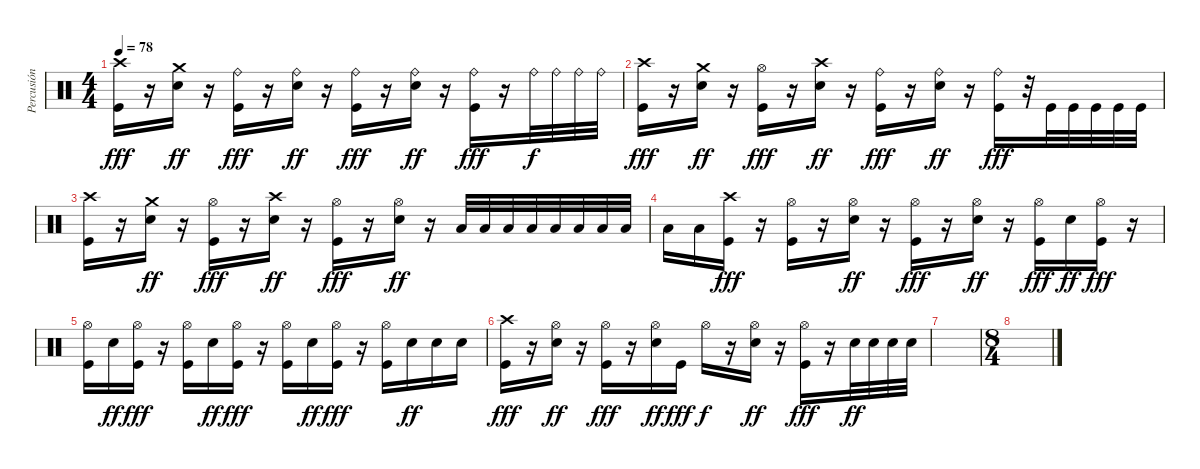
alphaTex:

\track ("Percusión" "Percusión") {instrument percussion}
\staff {score}
\articulation defaults
\ts (4 4)
\tempo 78
\clef neutral
\ks c
("Crash high (hit)" "Kick (hit)").16{dy fff} r.16 ("Crash medium (hit)" "Snare (hit) 2").16{dy ff} r.16 ("Ride (bell)" "Kick (hit)").16{dy fff} r.16 ("Ride (bell)" "Snare (hit) 2").16{dy ff} r.16 ("Ride (bell)" "Kick (hit)").16{dy fff} r.16 ("Ride (bell)" "Snare (hit) 2").16{dy ff} r.16 ("Ride (bell)" "Kick (hit)").16{dy fff} r.16 "Ride (bell)".32{dy f} "Ride (bell)".32 "Ride (bell)".32 "Ride (bell)".32 |
("Crash high (hit)" "Kick (hit)").16{dy fff} r.16 ("Crash medium (hit)" "Snare (hit) 2").16{dy ff} r.16 ("Hi-Hat (open)" "Kick (hit)").16{dy fff} r.16 ("Crash high (hit)" "Snare (hit) 2").16{dy ff} r.16 ("Ride (bell)" "Kick (hit)").16{dy fff} r.16 ("Ride (bell)" "Snare (hit) 2").16{dy ff} r.16 ("Ride (bell)" "Kick (hit)").16{dy fff} r.32 "Kick (hit)".32 "Kick (hit)".32 "Kick (hit)".32 "Kick (hit)".32 "Kick (hit)".32 |
("Crash high (hit)" "Kick (hit)").16 r.16 ("Crash medium (hit)" "Snare (hit) 2").16{dy ff} r.16 ("Hi-Hat (open)" "Kick (hit)").16{dy fff} r.16 ("Crash high (hit)" "Snare (hit) 2").16{dy ff} r.16 ("Hi-Hat (open)" "Kick (hit)").16{dy fff} r.16 ("Hi-Hat (open)" "Snare (hit) 2").16{dy ff} r.16 "Low Tom (hit)".32 "Low Tom (hit)".32 "Low Tom (hit)".32 "Low Tom (hit)".32 "Low Tom (hit)".32 "Low Tom (hit)".32 "Low Tom (hit)".32 "Low Tom (hit)".32 |
"Low Tom (hit)".16 "Low Tom (hit)".16 ("Crash high (hit)" "Kick (hit)").16{dy fff} r.16 ("Hi-Hat (open)" "Kick (hit)").16 r.16 ("Hi-Hat (open)" "Snare (hit) 2").16{dy ff} r.16 ("Hi-Hat (open)" "Kick (hit)").16{dy fff} r.16 ("Hi-Hat (open)" "Snare (hit) 2").16{dy ff} r.16 ("Hi-Hat (open)" "Kick (hit)").16{dy fff} "Snare (hit) 2".16{dy ff} ("Hi-Hat (open)" "Kick (hit)").16{dy fff} r.16 |
("Hi-Hat (open)" "Kick (hit)").16 "Snare (hit) 2".16{dy ff} ("Hi-Hat (open)" "Kick (hit)").16{dy fff} r.16 ("Hi-Hat (open)" "Kick (hit)").16 "Snare (hit) 2".16{dy ff} ("Hi-Hat (open)" "Kick (hit)").16{dy fff} r.16 ("Hi-Hat (open)" "Kick (hit)").16 "Snare (hit) 2".16{dy ff} ("Hi-Hat (open)" "Kick (hit)").16{dy fff} r.16 ("Hi-Hat (open)" "Kick (hit)").16 "Snare (hit) 2".16{dy ff} "Snare (hit) 2".16 "Snare (hit) 2".16 |
("Crash high (hit)" "Kick (hit)").16{dy fff} r.16 ("Hi-Hat (open)" "Snare (hit) 2").16{dy ff} r.16 ("Hi-Hat (open)" "Kick (hit)").16{dy fff} r.16 ("Hi-Hat (open)" "Snare (hit) 2").16{dy ff} "Kick (hit)".16{dy fff} "Hi-Hat (open)".16{dy f} r.16 ("Hi-Hat (open)" "Snare (hit) 2").16{dy ff} r.16 ("Hi-Hat (open)" "Kick (hit)").16{dy fff} r.16 "Snare (hit) 2".32{dy ff} "Snare (hit) 2".32 "Snare (hit) 2".32 "Snare (hit) 2".32 |
|
\ts (8 4)
